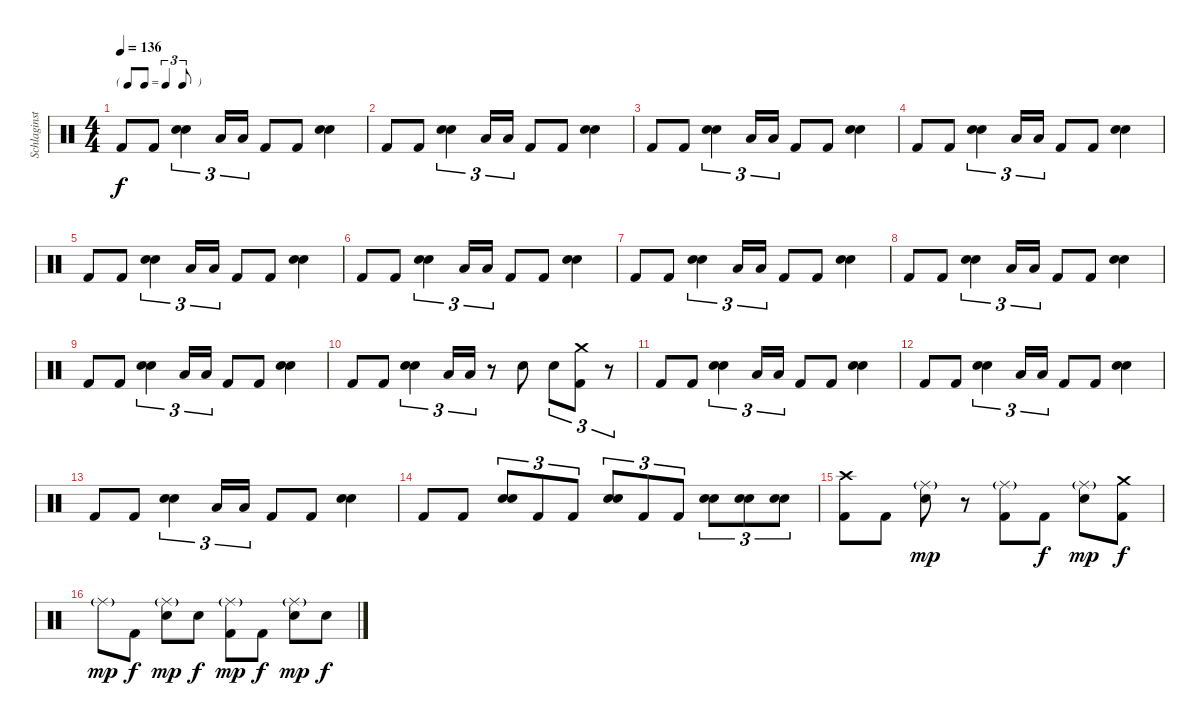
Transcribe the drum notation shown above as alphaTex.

\track ("Schlaginstrumente - Auswahl" "Schlaginst") {instrument percussion}
\staff {score}
\articulation defaults
\ts (4 4)
\tf triplet8th
\tempo 136
\clef neutral
\ks c "Kick (hit) 2".8{dy f} "Kick (hit) 2".8
("Snare (hit) 2" "Snare (hit) 2").4{tu (3 2) bd 240} "Low Tom (hit)".16{tu (3 2)} "Low Floor Tom (hit)".16{tu (3 2)} "Kick (hit) 2".8 "Kick (hit) 2".8 ("Snare (hit) 2" "Snare (hit) 2").4{bd 240} |
"Kick (hit) 2".8 "Kick (hit) 2".8 ("Snare (hit) 2" "Snare (hit) 2").4{tu (3 2) bd 240} "Low Tom (hit)".16{tu (3 2)} "Low Floor Tom (hit)".16{tu (3 2)} "Kick (hit) 2".8 "Kick (hit) 2".8 ("Snare (hit) 2" "Snare (hit) 2").4{bd 240} |
"Kick (hit) 2".8 "Kick (hit) 2".8 ("Snare (hit) 2" "Snare (hit) 2").4{tu (3 2) bd 240} "Low Tom (hit)".16{tu (3 2)} "Low Floor Tom (hit)".16{tu (3 2)} "Kick (hit) 2".8 "Kick (hit) 2".8 ("Snare (hit) 2" "Snare (hit) 2").4{bd 240} |
"Kick (hit) 2".8 "Kick (hit) 2".8 ("Snare (hit) 2" "Snare (hit) 2").4{tu (3 2) bd 240} "Low Tom (hit)".16{tu (3 2)} "Low Floor Tom (hit)".16{tu (3 2)} "Kick (hit) 2".8 "Kick (hit) 2".8 ("Snare (hit) 2" "Snare (hit) 2").4{bd 240} |
"Kick (hit) 2".8 "Kick (hit) 2".8 ("Snare (hit) 2" "Snare (hit) 2").4{tu (3 2) bd 240} "Low Tom (hit)".16{tu (3 2)} "Low Floor Tom (hit)".16{tu (3 2)} "Kick (hit) 2".8 "Kick (hit) 2".8 ("Snare (hit) 2" "Snare (hit) 2").4{bd 240} |
"Kick (hit) 2".8 "Kick (hit) 2".8 ("Snare (hit) 2" "Snare (hit) 2").4{tu (3 2) bd 240} "Low Tom (hit)".16{tu (3 2)} "Low Floor Tom (hit)".16{tu (3 2)} "Kick (hit) 2".8 "Kick (hit) 2".8 ("Snare (hit) 2" "Snare (hit) 2").4{bd 240} |
"Kick (hit) 2".8 "Kick (hit) 2".8 ("Snare (hit) 2" "Snare (hit) 2").4{tu (3 2) bd 240} "Low Tom (hit)".16{tu (3 2)} "Low Floor Tom (hit)".16{tu (3 2)} "Kick (hit) 2".8 "Kick (hit) 2".8 ("Snare (hit) 2" "Snare (hit) 2").4{bd 240} |
"Kick (hit) 2".8 "Kick (hit) 2".8 ("Snare (hit) 2" "Snare (hit) 2").4{tu (3 2) bd 240} "Low Tom (hit)".16{tu (3 2)} "Low Floor Tom (hit)".16{tu (3 2)} "Kick (hit) 2".8 "Kick (hit) 2".8 ("Snare (hit) 2" "Snare (hit) 2").4{bd 240} |
"Kick (hit) 2".8 "Kick (hit) 2".8 ("Snare (hit) 2" "Snare (hit) 2").4{tu (3 2) bd 240} "Low Tom (hit)".16{tu (3 2)} "Low Floor Tom (hit)".16{tu (3 2)} "Kick (hit) 2".8 "Kick (hit) 2".8 ("Snare (hit) 2" "Snare (hit) 2").4{bd 240} |
"Kick (hit) 2".8 "Kick (hit) 2".8 ("Snare (hit) 2" "Snare (hit) 2").4{tu (3 2) bd 240} "Low Tom (hit)".16{tu (3 2)} "Low Floor Tom (hit)".16{tu (3 2)} r.8 "Snare (hit) 2".8 "Snare (hit) 2".8{tu (3 2)} ("Crash medium (hit)" "Kick (hit) 2").8{tu (3 2)} r.8{tu (3 2)} |
"Kick (hit) 2".8 "Kick (hit) 2".8 ("Snare (hit) 2" "Snare (hit) 2").4{tu (3 2) bd 240} "Low Tom (hit)".16{tu (3 2)} "Low Floor Tom (hit)".16{tu (3 2)} "Kick (hit) 2".8 "Kick (hit) 2".8 ("Snare (hit) 2" "Snare (hit) 2").4{bd 240} |
"Kick (hit) 2".8 "Kick (hit) 2".8 ("Snare (hit) 2" "Snare (hit) 2").4{tu (3 2) bd 240} "Low Tom (hit)".16{tu (3 2)} "Low Floor Tom (hit)".16{tu (3 2)} "Kick (hit) 2".8 "Kick (hit) 2".8 ("Snare (hit) 2" "Snare (hit) 2").4{bd 240} |
"Kick (hit) 2".8 "Kick (hit) 2".8 ("Snare (hit) 2" "Snare (hit) 2").4{tu (3 2) bd 240} "Low Tom (hit)".16{tu (3 2)} "Low Floor Tom (hit)".16{tu (3 2)} "Kick (hit) 2".8 "Kick (hit) 2".8 ("Snare (hit) 2" "Snare (hit) 2").4{bd 240} |
"Kick (hit) 2".8 "Kick (hit) 2".8 ("Snare (hit) 2" "Snare (hit) 2").8{tu (3 2) bd 240} "Kick (hit) 2".8{tu (3 2)} "Kick (hit) 2".8{tu (3 2)} ("Snare (hit) 2" "Snare (hit) 2").8{tu (3 2) bd 240} "Kick (hit) 2".8{tu (3 2)} "Kick (hit) 2".8{tu (3 2)} ("Snare (hit) 2" "Snare (hit) 2").8{tu (3 2) bd 240} ("Snare (hit) 2" "Snare (hit) 2").8{tu (3 2) bd 240} ("Snare (hit) 2" "Snare (hit) 2").8{tu (3 2) bd 240} |
("Crash high (hit)" "Kick (hit) 2").8 "Kick (hit) 2".8 ("Ride (middle)"{g} "Snare (hit) 2").8{dy mp} r.8 ("Ride (middle)"{g} "Kick (hit) 2").8 "Kick (hit) 2".8{dy f} ("Ride (middle)"{g} "Snare (hit) 2").8{dy mp} ("Crash medium (hit)" "Kick (hit) 2").8{dy f} |
"Ride (middle)"{g}.8{dy mp} "Kick (hit) 2".8{dy f} ("Ride (middle)"{g} "Snare (hit) 2").8{dy mp} "Snare (hit) 2".8{dy f} ("Ride (middle)"{g} "Kick (hit) 2").8{dy mp} "Kick (hit) 2".8{dy f} ("Ride (middle)"{g} "Snare (hit) 2").8{dy mp} "Snare (hit) 2".8{dy f}
